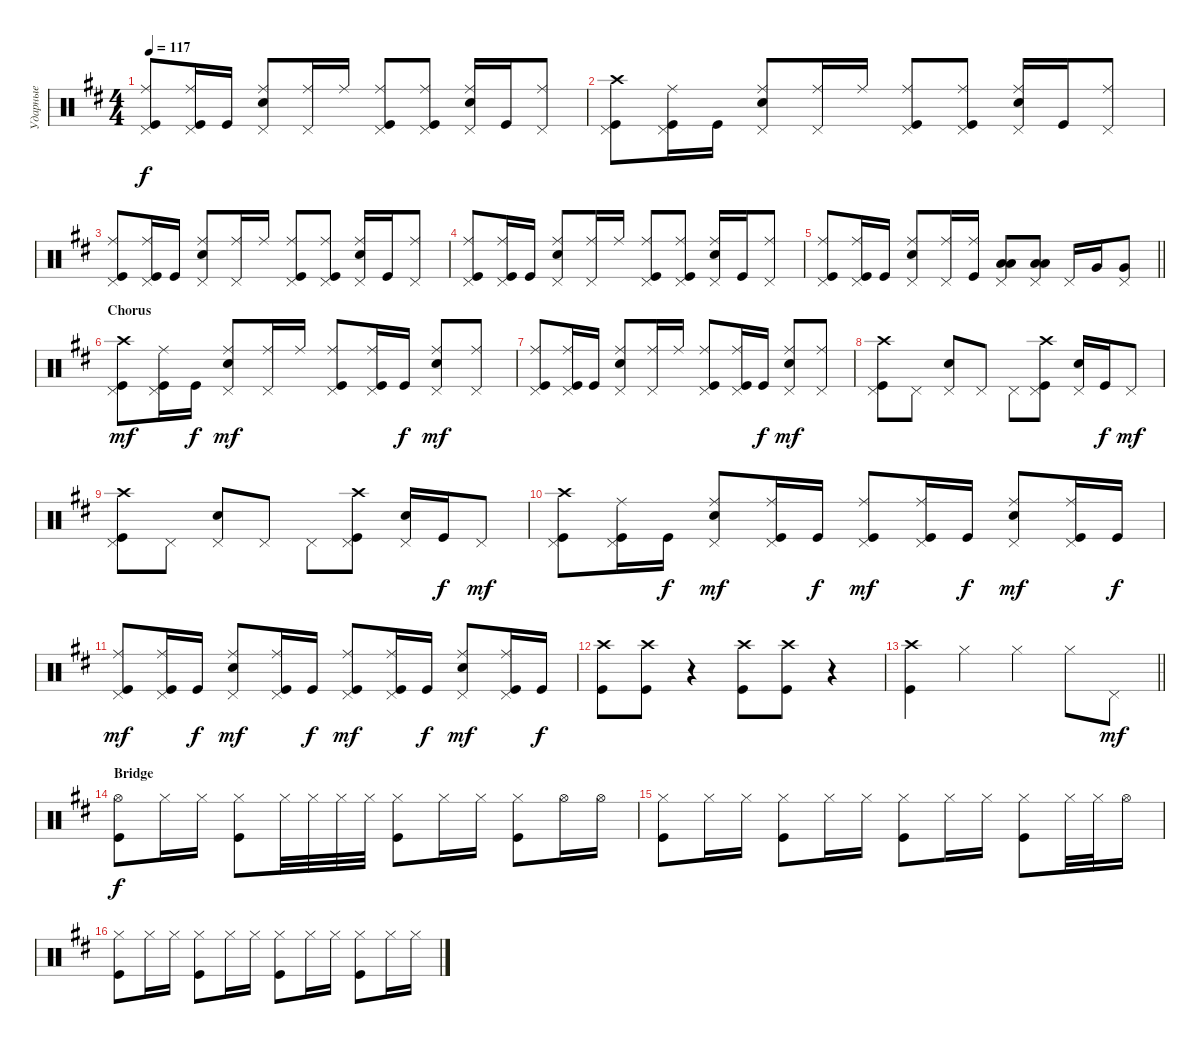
\track ("Ударные" "Ударные") {instrument percussion}
\staff {score}
\articulation defaults
\ts (4 4)
\tempo 117
\clef neutral
\ks d
("Kick (hit)" "Ride (middle)" "Pedal Hi-Hat (hit)").8{dy f} ("Kick (hit)" "Ride (middle)" "Pedal Hi-Hat (hit)").16 "Kick (hit)".16 ("Snare (hit) 2" "Ride (middle)" "Pedal Hi-Hat (hit)").8 ("Ride (middle)" "Pedal Hi-Hat (hit)").16 "Ride (middle)".16 ("Kick (hit)" "Ride (middle)" "Pedal Hi-Hat (hit)").8 ("Ride (middle)" "Kick (hit)" "Pedal Hi-Hat (hit)").8 ("Snare (hit) 2" "Ride (middle)" "Pedal Hi-Hat (hit)").16 "Kick (hit)".16 ("Ride (middle)" "Pedal Hi-Hat (hit)").8 |
("Kick (hit)" "Crash high (hit)" "Pedal Hi-Hat (hit)").8 ("Kick (hit)" "Ride (middle)" "Pedal Hi-Hat (hit)").16 "Kick (hit)".16 ("Snare (hit) 2" "Ride (middle)" "Pedal Hi-Hat (hit)").8 ("Ride (middle)" "Pedal Hi-Hat (hit)").16 "Ride (middle)".16 ("Kick (hit)" "Ride (middle)" "Pedal Hi-Hat (hit)").8 ("Ride (middle)" "Kick (hit)" "Pedal Hi-Hat (hit)").8 ("Snare (hit) 2" "Ride (middle)" "Pedal Hi-Hat (hit)").16 "Kick (hit)".16 ("Ride (middle)" "Pedal Hi-Hat (hit)").8 |
("Kick (hit)" "Ride (middle)" "Pedal Hi-Hat (hit)").8 ("Kick (hit)" "Ride (middle)" "Pedal Hi-Hat (hit)").16 "Kick (hit)".16 ("Snare (hit) 2" "Ride (middle)" "Pedal Hi-Hat (hit)").8 ("Ride (middle)" "Pedal Hi-Hat (hit)").16 "Ride (middle)".16 ("Kick (hit)" "Ride (middle)" "Pedal Hi-Hat (hit)").8 ("Ride (middle)" "Kick (hit)" "Pedal Hi-Hat (hit)").8 ("Snare (hit) 2" "Ride (middle)" "Pedal Hi-Hat (hit)").16 "Kick (hit)".16 ("Ride (middle)" "Pedal Hi-Hat (hit)").8 |
("Kick (hit)" "Ride (middle)" "Pedal Hi-Hat (hit)").8 ("Kick (hit)" "Ride (middle)" "Pedal Hi-Hat (hit)").16 "Kick (hit)".16 ("Snare (hit) 2" "Ride (middle)" "Pedal Hi-Hat (hit)").8 ("Ride (middle)" "Pedal Hi-Hat (hit)").16 "Ride (middle)".16 ("Kick (hit)" "Ride (middle)" "Pedal Hi-Hat (hit)").8 ("Ride (middle)" "Kick (hit)" "Pedal Hi-Hat (hit)").8 ("Snare (hit) 2" "Ride (middle)" "Pedal Hi-Hat (hit)").16 "Kick (hit)".16 ("Ride (middle)" "Pedal Hi-Hat (hit)").8 |
\barLineRight lightlight
("Kick (hit)" "Ride (middle)" "Pedal Hi-Hat (hit)").8 ("Kick (hit)" "Ride (middle)" "Pedal Hi-Hat (hit)").16 "Kick (hit)".16 ("Snare (hit) 2" "Ride (middle)" "Pedal Hi-Hat (hit)").8 ("Ride (middle)" "Pedal Hi-Hat (hit)").16 ("Ride (middle)" "Kick (hit)").16 ("Low Tom (hit)" "Low Tom (hit)" "Pedal Hi-Hat (hit)").8{bd 120} ("Low Tom (hit)" "Low Tom (hit)" "Pedal Hi-Hat (hit)").8{bd 120} "Pedal Hi-Hat (hit)".16 "Very Low Tom (hit)".16 ("Pedal Hi-Hat (hit)" "Very Low Tom (hit)").8 |
\section ("" "Chorus")
("Kick (hit)" "Crash high (hit)" "Pedal Hi-Hat (hit)").8{dy mf} ("Kick (hit)" "Ride (middle)" "Pedal Hi-Hat (hit)").16 "Kick (hit)".16{dy f} ("Snare (hit) 2" "Ride (middle)" "Pedal Hi-Hat (hit)").8{dy mf} ("Ride (middle)" "Pedal Hi-Hat (hit)").16 "Ride (middle)".16 ("Kick (hit)" "Ride (middle)" "Pedal Hi-Hat (hit)").8 ("Ride (middle)" "Kick (hit)" "Pedal Hi-Hat (hit)").16 "Kick (hit)".16{dy f} ("Snare (hit) 2" "Ride (middle)" "Pedal Hi-Hat (hit)").8{dy mf} ("Ride (middle)" "Pedal Hi-Hat (hit)").8 |
("Kick (hit)" "Ride (middle)" "Pedal Hi-Hat (hit)").8 ("Kick (hit)" "Ride (middle)" "Pedal Hi-Hat (hit)").16 "Kick (hit)".16 ("Snare (hit) 2" "Ride (middle)" "Pedal Hi-Hat (hit)").8 ("Ride (middle)" "Pedal Hi-Hat (hit)").16 "Ride (middle)".16 ("Kick (hit)" "Ride (middle)" "Pedal Hi-Hat (hit)").8 ("Ride (middle)" "Kick (hit)" "Pedal Hi-Hat (hit)").16 "Kick (hit)".16{dy f} ("Snare (hit) 2" "Ride (middle)" "Pedal Hi-Hat (hit)").8{dy mf} ("Ride (middle)" "Pedal Hi-Hat (hit)").8 |
("Kick (hit)" "Crash high (hit)" "Pedal Hi-Hat (hit)").8 "Pedal Hi-Hat (hit)".8 ("Snare (hit) 2" "Pedal Hi-Hat (hit)").8 "Pedal Hi-Hat (hit)".8 "Pedal Hi-Hat (hit)".8 ("Kick (hit)" "Crash high (hit)" "Pedal Hi-Hat (hit)").8 ("Snare (hit) 2" "Pedal Hi-Hat (hit)").16 "Kick (hit)".16{dy f} "Pedal Hi-Hat (hit)".8{dy mf} |
("Kick (hit)" "Crash high (hit)" "Pedal Hi-Hat (hit)").8 "Pedal Hi-Hat (hit)".8 ("Snare (hit) 2" "Pedal Hi-Hat (hit)").8 "Pedal Hi-Hat (hit)".8 "Pedal Hi-Hat (hit)".8 ("Kick (hit)" "Crash high (hit)" "Pedal Hi-Hat (hit)").8 ("Snare (hit) 2" "Pedal Hi-Hat (hit)").16 "Kick (hit)".16{dy f} "Pedal Hi-Hat (hit)".8{dy mf} |
("Kick (hit)" "Crash high (hit)" "Pedal Hi-Hat (hit)").8 ("Kick (hit)" "Ride (middle)" "Pedal Hi-Hat (hit)").16 "Kick (hit)".16{dy f} ("Snare (hit) 2" "Ride (middle)" "Pedal Hi-Hat (hit)").8{dy mf} ("Ride (middle)" "Kick (hit)" "Pedal Hi-Hat (hit)").16 "Kick (hit)".16{dy f} ("Kick (hit)" "Ride (middle)" "Pedal Hi-Hat (hit)").8{dy mf} ("Ride (middle)" "Kick (hit)" "Pedal Hi-Hat (hit)").16 "Kick (hit)".16{dy f} ("Snare (hit) 2" "Ride (middle)" "Pedal Hi-Hat (hit)").8{dy mf} ("Ride (middle)" "Kick (hit)" "Pedal Hi-Hat (hit)").16 "Kick (hit)".16{dy f} |
("Kick (hit)" "Ride (middle)" "Pedal Hi-Hat (hit)").8{dy mf} ("Kick (hit)" "Ride (middle)" "Pedal Hi-Hat (hit)").16 "Kick (hit)".16{dy f} ("Snare (hit) 2" "Ride (middle)" "Pedal Hi-Hat (hit)").8{dy mf} ("Ride (middle)" "Kick (hit)" "Pedal Hi-Hat (hit)").16 "Kick (hit)".16{dy f} ("Kick (hit)" "Ride (middle)" "Pedal Hi-Hat (hit)").8{dy mf} ("Ride (middle)" "Kick (hit)" "Pedal Hi-Hat (hit)").16 "Kick (hit)".16{dy f} ("Snare (hit) 2" "Ride (middle)" "Pedal Hi-Hat (hit)").8{dy mf} ("Ride (middle)" "Kick (hit)" "Pedal Hi-Hat (hit)").16 "Kick (hit)".16{dy f} |
("Kick (hit)" "Crash high (hit)").8 ("Kick (hit)" "Crash high (hit)").8 r.4 ("Kick (hit)" "Crash high (hit)").8 ("Kick (hit)" "Crash high (hit)").8 r.4 |
\barLineRight lightlight
("Kick (hit)" "Crash high (hit)").4 "Hi-Hat (closed)".4 "Hi-Hat (closed)".4 "Hi-Hat (closed)".8 "Pedal Hi-Hat (hit)".8{dy mf} |
\section ("" "Bridge")
("Hi-Hat (open)" "Kick (hit)").8{dy f} "Hi-Hat (closed)".16 "Hi-Hat (closed)".16 ("Hi-Hat (closed)" "Kick (hit)").8 "Hi-Hat (closed)".32 "Hi-Hat (closed)".32 "Hi-Hat (closed)".32 "Hi-Hat (closed)".32 ("Hi-Hat (closed)" "Kick (hit)").8 "Hi-Hat (closed)".16 "Hi-Hat (closed)".16 ("Hi-Hat (closed)" "Kick (hit)").8 "Hi-Hat (open)".16 "Hi-Hat (open)".16 |
("Hi-Hat (closed)" "Kick (hit)").8 "Hi-Hat (closed)".16 "Hi-Hat (closed)".16 ("Hi-Hat (closed)" "Kick (hit)").8 "Hi-Hat (closed)".16 "Hi-Hat (closed)".16 ("Hi-Hat (closed)" "Kick (hit)").8 "Hi-Hat (closed)".16 "Hi-Hat (closed)".16 ("Hi-Hat (closed)" "Kick (hit)").8 "Hi-Hat (closed)".32 "Hi-Hat (closed)".32 "Hi-Hat (open)".16 |
("Hi-Hat (closed)" "Kick (hit)").8 "Hi-Hat (closed)".16 "Hi-Hat (closed)".16 ("Hi-Hat (closed)" "Kick (hit)").8 "Hi-Hat (closed)".16 "Hi-Hat (closed)".16 ("Hi-Hat (closed)" "Kick (hit)").8 "Hi-Hat (closed)".16 "Hi-Hat (closed)".16 ("Hi-Hat (closed)" "Kick (hit)").8 "Hi-Hat (closed)".16 "Hi-Hat (closed)".16
